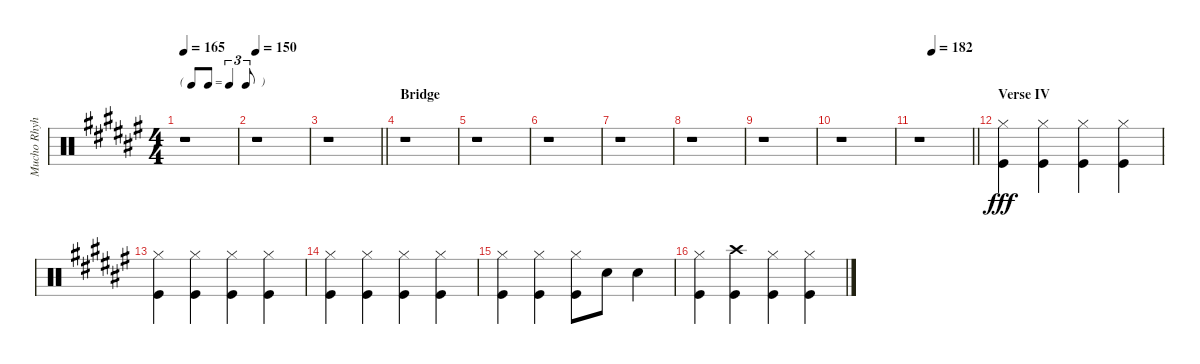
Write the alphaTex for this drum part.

\track ("Mucho Rhyhtm" "Mucho Rhyh") {instrument percussion}
\staff {score}
\articulation defaults
\ts (4 4)
\tf triplet8th
\tempo 165
\clef neutral
\ks f#
r.1{dy fff} |
\tempo 150
r.1 |
\barLineRight lightlight
r.1 |
\section ("" "Bridge")
r.1 |
r.1 |
r.1 |
r.1 |
r.1 |
r.1 |
r.1 |
\tempo (182 0.25)
\barLineRight lightlight
r.1 |
\section ("" "Verse IV")
("Hi-Hat (closed)" "Kick (hit)").4 ("Hi-Hat (closed)" "Kick (hit)").4 ("Hi-Hat (closed)" "Kick (hit)").4 ("Hi-Hat (closed)" "Kick (hit)").4 |
("Hi-Hat (closed)" "Kick (hit)").4 ("Hi-Hat (closed)" "Kick (hit)").4 ("Hi-Hat (closed)" "Kick (hit)").4 ("Hi-Hat (closed)" "Kick (hit)").4 |
("Hi-Hat (closed)" "Kick (hit)").4 ("Hi-Hat (closed)" "Kick (hit)").4 ("Hi-Hat (closed)" "Kick (hit)").4 ("Hi-Hat (closed)" "Kick (hit)").4 |
("Hi-Hat (closed)" "Kick (hit)").4 ("Hi-Hat (closed)" "Kick (hit)").4 ("Hi-Hat (closed)" "Kick (hit)").8 "Snare (hit) 2".8 "Snare (hit) 2".4 |
("Hi-Hat (closed)" "Kick (hit)").4 ("Crash high (hit)" "Kick (hit)").4 ("Hi-Hat (closed)" "Kick (hit)").4 ("Hi-Hat (closed)" "Kick (hit)").4
